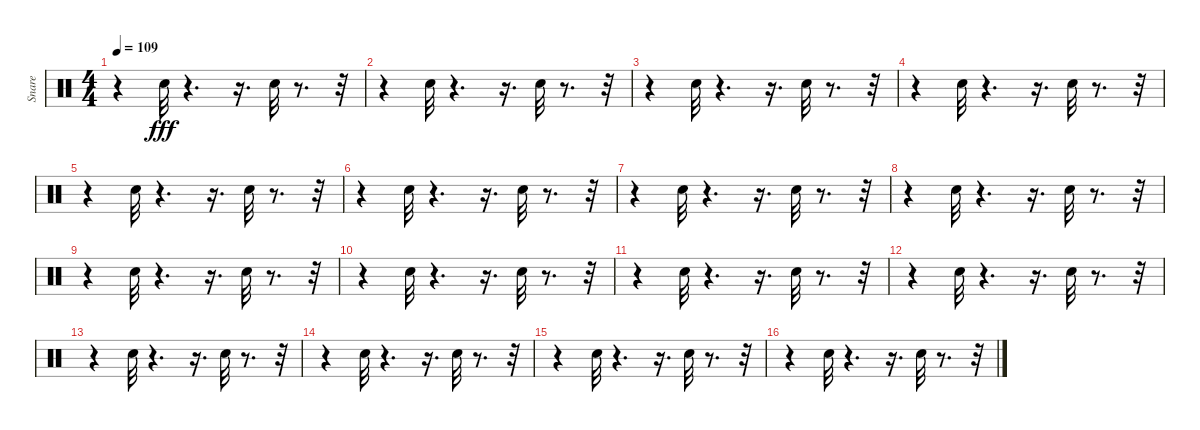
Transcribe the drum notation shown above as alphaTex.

\track ("Snare" "Snare") {instrument percussion}
\staff {score}
\articulation defaults
\ts (4 4)
\tempo 109
\clef neutral
\ks c
r.4{dy fff} "Electric Snare (hit)".32 r.4{d} r.16{d} "Electric Snare (hit)".32 r.8{d} r.32 |
r.4 "Electric Snare (hit)".32 r.4{d} r.16{d} "Electric Snare (hit)".32 r.8{d} r.32 |
r.4 "Electric Snare (hit)".32 r.4{d} r.16{d} "Electric Snare (hit)".32 r.8{d} r.32 |
r.4 "Electric Snare (hit)".32 r.4{d} r.16{d} "Electric Snare (hit)".32 r.8{d} r.32 |
r.4 "Electric Snare (hit)".32 r.4{d} r.16{d} "Electric Snare (hit)".32 r.8{d} r.32 |
r.4 "Electric Snare (hit)".32 r.4{d} r.16{d} "Electric Snare (hit)".32 r.8{d} r.32 |
r.4 "Electric Snare (hit)".32 r.4{d} r.16{d} "Electric Snare (hit)".32 r.8{d} r.32 |
r.4 "Electric Snare (hit)".32 r.4{d} r.16{d} "Electric Snare (hit)".32 r.8{d} r.32 |
r.4 "Electric Snare (hit)".32 r.4{d} r.16{d} "Electric Snare (hit)".32 r.8{d} r.32 |
r.4 "Electric Snare (hit)".32 r.4{d} r.16{d} "Electric Snare (hit)".32 r.8{d} r.32 |
r.4 "Electric Snare (hit)".32 r.4{d} r.16{d} "Electric Snare (hit)".32 r.8{d} r.32 |
r.4 "Electric Snare (hit)".32 r.4{d} r.16{d} "Electric Snare (hit)".32 r.8{d} r.32 |
r.4 "Electric Snare (hit)".32 r.4{d} r.16{d} "Electric Snare (hit)".32 r.8{d} r.32 |
r.4 "Electric Snare (hit)".32 r.4{d} r.16{d} "Electric Snare (hit)".32 r.8{d} r.32 |
r.4 "Electric Snare (hit)".32 r.4{d} r.16{d} "Electric Snare (hit)".32 r.8{d} r.32 |
r.4 "Electric Snare (hit)".32 r.4{d} r.16{d} "Electric Snare (hit)".32 r.8{d} r.32
